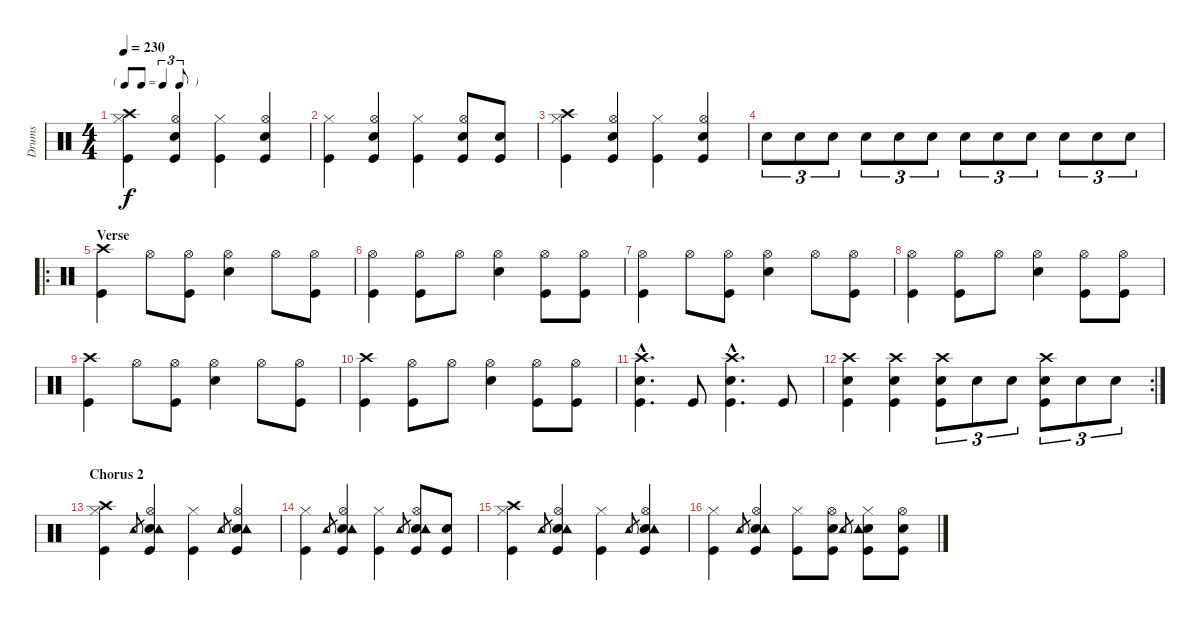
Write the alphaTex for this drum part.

\track ("Drums" "Drums") {instrument percussion}
\staff {score}
\articulation defaults
\ts (4 4)
\tf triplet8th
\tempo 230
\clef neutral
\ks c
("Crash high (hit)" "Hi-Hat (closed)" "Kick (hit)").4{dy f} ("Hi-Hat (open)" "Electric Snare (hit)" "Kick (hit)").4 ("Hi-Hat (closed)" "Kick (hit)").4 ("Hi-Hat (open)" "Electric Snare (hit)" "Kick (hit)").4 |
("Hi-Hat (closed)" "Kick (hit)").4 ("Hi-Hat (open)" "Electric Snare (hit)" "Kick (hit)").4 ("Hi-Hat (closed)" "Kick (hit)").4 ("Hi-Hat (open)" "Electric Snare (hit)" "Kick (hit)").8 ("Electric Snare (hit)" "Kick (hit)").8 |
("Crash high (hit)" "Hi-Hat (closed)" "Kick (hit)").4 ("Hi-Hat (open)" "Electric Snare (hit)" "Kick (hit)").4 ("Hi-Hat (closed)" "Kick (hit)").4 ("Hi-Hat (open)" "Electric Snare (hit)" "Kick (hit)").4 |
"Electric Snare (hit)".8{tu (3 2)} "Electric Snare (hit)".8{tu (3 2)} "Electric Snare (hit)".8{tu (3 2)} "Electric Snare (hit)".8{tu (3 2)} "Electric Snare (hit)".8{tu (3 2)} "Electric Snare (hit)".8{tu (3 2)} "Electric Snare (hit)".8{tu (3 2)} "Electric Snare (hit)".8{tu (3 2)} "Electric Snare (hit)".8{tu (3 2)} "Electric Snare (hit)".8{tu (3 2)} "Electric Snare (hit)".8{tu (3 2)} "Electric Snare (hit)".8{tu (3 2)} |
\ro
\section ("" "Verse")
("Crash high (hit)" "Kick (hit)").4 "Hi-Hat (open)".8 ("Hi-Hat (open)" "Kick (hit)").8 ("Hi-Hat (open)" "Electric Snare (hit)").4 "Hi-Hat (open)".8 ("Hi-Hat (open)" "Kick (hit)").8 |
("Hi-Hat (open)" "Kick (hit)").4 ("Hi-Hat (open)" "Kick (hit)").8 "Hi-Hat (open)".8 ("Hi-Hat (open)" "Electric Snare (hit)").4 ("Hi-Hat (open)" "Kick (hit)").8 ("Hi-Hat (open)" "Kick (hit)").8 |
("Hi-Hat (open)" "Kick (hit)").4 "Hi-Hat (open)".8 ("Hi-Hat (open)" "Kick (hit)").8 ("Hi-Hat (open)" "Electric Snare (hit)").4 "Hi-Hat (open)".8 ("Hi-Hat (open)" "Kick (hit)").8 |
("Hi-Hat (open)" "Kick (hit)").4 ("Hi-Hat (open)" "Kick (hit)").8 "Hi-Hat (open)".8 ("Hi-Hat (open)" "Electric Snare (hit)").4 ("Hi-Hat (open)" "Kick (hit)").8 ("Hi-Hat (open)" "Kick (hit)").8 |
("Crash high (hit)" "Kick (hit)").4 "Hi-Hat (open)".8 ("Hi-Hat (open)" "Kick (hit)").8 ("Hi-Hat (open)" "Electric Snare (hit)").4 "Hi-Hat (open)".8 ("Hi-Hat (open)" "Kick (hit)").8 |
("Crash high (hit)" "Kick (hit)").4 ("Hi-Hat (open)" "Kick (hit)").8 "Hi-Hat (open)".8 ("Hi-Hat (open)" "Electric Snare (hit)").4 ("Hi-Hat (open)" "Kick (hit)").8 ("Hi-Hat (open)" "Kick (hit)").8 |
("Crash high (hit)"{hac} "Electric Snare (hit)"{hac} "Kick (hit)"{hac}).4{d} "Kick (hit)".8 ("Crash high (hit)"{hac} "Electric Snare (hit)"{hac} "Kick (hit)"{hac}).4{d} "Kick (hit)".8 |
\rc 2
("Crash high (hit)" "Electric Snare (hit)" "Kick (hit)").4 ("Crash high (hit)" "Electric Snare (hit)" "Kick (hit)").4 ("Crash high (hit)" "Electric Snare (hit)" "Kick (hit)").8{tu (3 2)} "Electric Snare (hit)".8{tu (3 2)} "Electric Snare (hit)".8{tu (3 2)} ("Crash high (hit)" "Electric Snare (hit)" "Kick (hit)").8{tu (3 2)} "Electric Snare (hit)".8{tu (3 2)} "Electric Snare (hit)".8{tu (3 2)} |
\section ("" "Chorus 2")
("Crash high (hit)" "Hi-Hat (closed)" "Kick (hit)").4 "Tambourine (hit)".8{gr} ("Hi-Hat (open)" "Electric Snare (hit)" "Kick (hit)" "Tambourine (hit)").4 ("Hi-Hat (closed)" "Kick (hit)").4 "Tambourine (hit)".8{gr} ("Hi-Hat (open)" "Electric Snare (hit)" "Kick (hit)" "Tambourine (hit)").4 |
("Hi-Hat (closed)" "Kick (hit)").4 "Tambourine (hit)".8{gr} ("Hi-Hat (open)" "Electric Snare (hit)" "Kick (hit)" "Tambourine (hit)").4 ("Hi-Hat (closed)" "Kick (hit)").4 "Tambourine (hit)".8{gr} ("Hi-Hat (open)" "Electric Snare (hit)" "Kick (hit)" "Tambourine (hit)").8 ("Electric Snare (hit)" "Kick (hit)").8 |
("Crash high (hit)" "Hi-Hat (closed)" "Kick (hit)").4 "Tambourine (hit)".8{gr} ("Hi-Hat (open)" "Electric Snare (hit)" "Kick (hit)" "Tambourine (hit)").4 ("Hi-Hat (closed)" "Kick (hit)").4 "Tambourine (hit)".8{gr} ("Hi-Hat (open)" "Electric Snare (hit)" "Kick (hit)" "Tambourine (hit)").4 |
("Hi-Hat (closed)" "Kick (hit)").4 "Tambourine (hit)".8{gr} ("Hi-Hat (open)" "Electric Snare (hit)" "Kick (hit)" "Tambourine (hit)").4 ("Hi-Hat (closed)" "Kick (hit)").8 ("Hi-Hat (open)" "Electric Snare (hit)" "Kick (hit)").8 "Tambourine (hit)".8{gr} ("Hi-Hat (closed)" "Electric Snare (hit)" "Kick (hit)" "Tambourine (hit)").8 ("Hi-Hat (open)" "Electric Snare (hit)" "Kick (hit)").8
